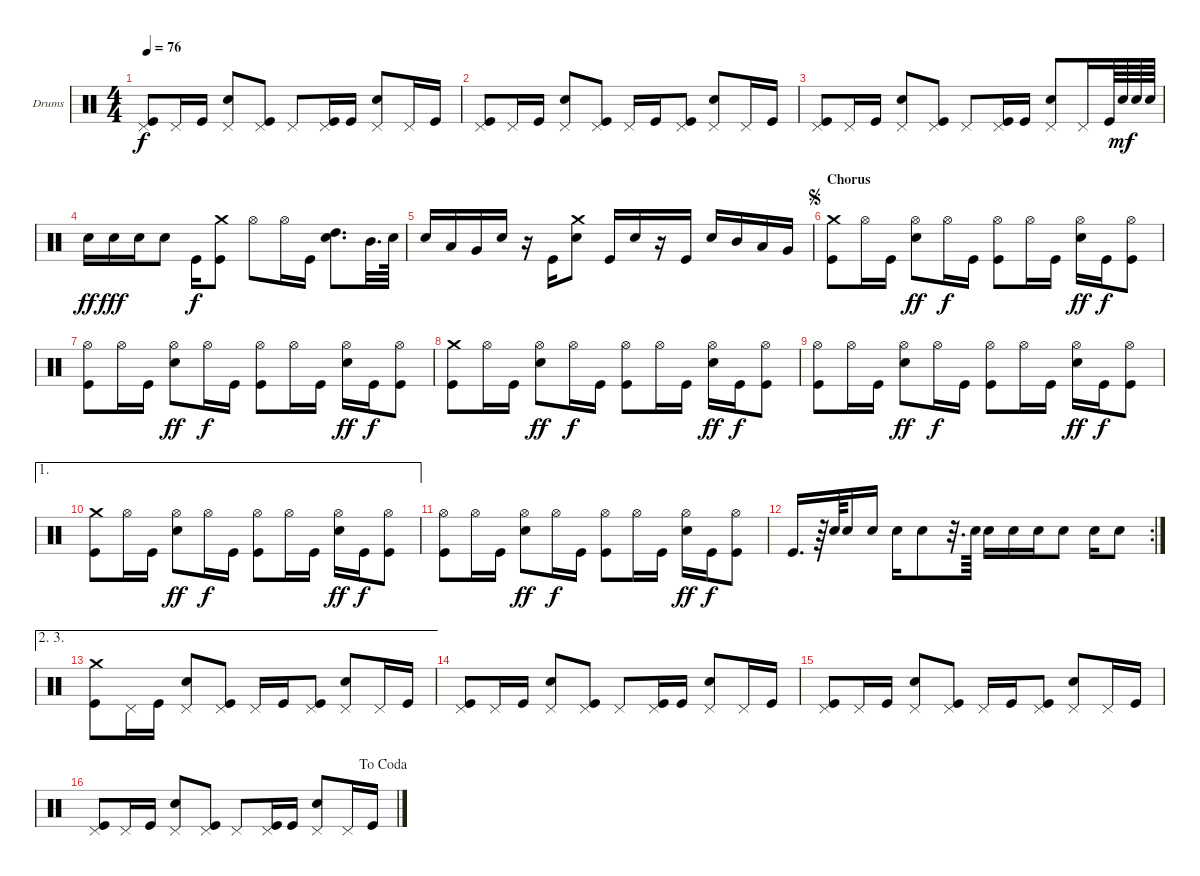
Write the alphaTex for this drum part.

\bracketExtendMode groupsimilarinstruments
\firstSystemTrackNameOrientation horizontal
\otherSystemsTrackNameOrientation horizontal
\track ("Drumkit" "Drums") {instrument percussion}
\staff {score}
\articulation defaults
\ts (4 4)
\tempo 76
\clef neutral
\ks c
("Pedal Hi-Hat (hit)" "Kick (hit)").8{dy f} "Pedal Hi-Hat (hit)".16 "Kick (hit)".16 ("Pedal Hi-Hat (hit)" "Snare (hit) 2").8 ("Pedal Hi-Hat (hit)" "Kick (hit)").8 "Pedal Hi-Hat (hit)".8 ("Pedal Hi-Hat (hit)" "Kick (hit)").16 "Kick (hit)".16 ("Pedal Hi-Hat (hit)" "Snare (hit) 2").8 "Pedal Hi-Hat (hit)".16 "Kick (hit)".16 |
("Pedal Hi-Hat (hit)" "Kick (hit)").8 "Pedal Hi-Hat (hit)".16 "Kick (hit)".16 ("Pedal Hi-Hat (hit)" "Snare (hit) 2").8 ("Pedal Hi-Hat (hit)" "Kick (hit)").8 "Pedal Hi-Hat (hit)".16 "Kick (hit)".16 ("Pedal Hi-Hat (hit)" "Kick (hit)").8 ("Pedal Hi-Hat (hit)" "Snare (hit) 2").8 "Pedal Hi-Hat (hit)".16 "Kick (hit)".16 |
("Pedal Hi-Hat (hit)" "Kick (hit)").8 "Pedal Hi-Hat (hit)".16 "Kick (hit)".16 ("Pedal Hi-Hat (hit)" "Snare (hit) 2").8 ("Pedal Hi-Hat (hit)" "Kick (hit)").8 "Pedal Hi-Hat (hit)".8 ("Pedal Hi-Hat (hit)" "Kick (hit)").16 "Kick (hit)".16 ("Pedal Hi-Hat (hit)" "Snare (hit) 2").8 "Pedal Hi-Hat (hit)".16 "Kick (hit)".64 "Snare (hit) 2".64{dy mf} "Snare (hit) 2".64 "Snare (hit) 2".64 |
"Snare (hit) 2".16{dy ff} "Snare (hit) 2".16{dy fff} "Snare (hit) 2".16 "Snare (hit) 2".8 "Kick (hit)".16{dy f} ("Kick (hit)" "Crash medium (hit)").8 "Hi-Hat (open)".8 "Hi-Hat (open)".16 "Kick (hit)".16 ("High Tom (hit)" "Snare (hit) 2").8{d} "Mid Tom (hit)".32{d} "Snare (hit) 2".64 |
"Snare (hit) 2".16 "Low Tom (hit)".16 "Very Low Tom (hit)".16 "Snare (hit) 2".16 r.16 "Kick (hit)".16 ("Crash medium (hit)" "Snare (hit) 2").8 "Kick (hit)".16 "Snare (hit) 2".16 r.16 "Kick (hit)".16 "Snare (hit) 2".16 "Mid Tom (hit)".16 "Low Tom (hit)".16 "Very Low Tom (hit)".16 |
\section ("" "Chorus")
\jump segno
("Crash medium (hit)" "Kick (hit)").8 "Hi-Hat (open)".16 "Kick (hit)".16 ("Snare (hit) 2" "Hi-Hat (open)").8{dy ff} "Hi-Hat (open)".16{dy f} "Kick (hit)".16 ("Kick (hit)" "Hi-Hat (open)").8 "Hi-Hat (open)".16 "Kick (hit)".16 ("Snare (hit) 2" "Hi-Hat (open)").16{dy ff} "Kick (hit)".16{dy f} ("Kick (hit)" "Hi-Hat (open)").8 |
("Hi-Hat (open)" "Kick (hit)").8 "Hi-Hat (open)".16 "Kick (hit)".16 ("Snare (hit) 2" "Hi-Hat (open)").8{dy ff} "Hi-Hat (open)".16{dy f} "Kick (hit)".16 ("Kick (hit)" "Hi-Hat (open)").8 "Hi-Hat (open)".16 "Kick (hit)".16 ("Snare (hit) 2" "Hi-Hat (open)").16{dy ff} "Kick (hit)".16{dy f} ("Kick (hit)" "Hi-Hat (open)").8 |
("Crash medium (hit)" "Kick (hit)").8 "Hi-Hat (open)".16 "Kick (hit)".16 ("Snare (hit) 2" "Hi-Hat (open)").8{dy ff} "Hi-Hat (open)".16{dy f} "Kick (hit)".16 ("Kick (hit)" "Hi-Hat (open)").8 "Hi-Hat (open)".16 "Kick (hit)".16 ("Snare (hit) 2" "Hi-Hat (open)").16{dy ff} "Kick (hit)".16{dy f} ("Kick (hit)" "Hi-Hat (open)").8 |
("Hi-Hat (open)" "Kick (hit)").8 "Hi-Hat (open)".16 "Kick (hit)".16 ("Snare (hit) 2" "Hi-Hat (open)").8{dy ff} "Hi-Hat (open)".16{dy f} "Kick (hit)".16 ("Kick (hit)" "Hi-Hat (open)").8 "Hi-Hat (open)".16 "Kick (hit)".16 ("Snare (hit) 2" "Hi-Hat (open)").16{dy ff} "Kick (hit)".16{dy f} ("Kick (hit)" "Hi-Hat (open)").8 |
\ae 1
("Crash medium (hit)" "Kick (hit)").8 "Hi-Hat (open)".16 "Kick (hit)".16 ("Snare (hit) 2" "Hi-Hat (open)").8{dy ff} "Hi-Hat (open)".16{dy f} "Kick (hit)".16 ("Kick (hit)" "Hi-Hat (open)").8 "Hi-Hat (open)".16 "Kick (hit)".16 ("Snare (hit) 2" "Hi-Hat (open)").16{dy ff} "Kick (hit)".16{dy f} ("Kick (hit)" "Hi-Hat (open)").8 |
("Hi-Hat (open)" "Kick (hit)").8 "Hi-Hat (open)".16 "Kick (hit)".16 ("Snare (hit) 2" "Hi-Hat (open)").8{dy ff} "Hi-Hat (open)".16{dy f} "Kick (hit)".16 ("Kick (hit)" "Hi-Hat (open)").8 "Hi-Hat (open)".16 "Kick (hit)".16 ("Snare (hit) 2" "Hi-Hat (open)").16{dy ff} "Kick (hit)".16{dy f} ("Kick (hit)" "Hi-Hat (open)").8 |
\rc 2 "Kick (hit)".16{d}
r.64 "Snare (hit) 2".64 "Snare (hit) 2".16 "Snare (hit) 2".16 "Snare (hit) 2".16 "Snare (hit) 2".8 r.32{d} "Snare (hit) 2".64 "Snare (hit) 2".16 "Snare (hit) 2".16 "Snare (hit) 2".16 "Snare (hit) 2".8 "Snare (hit) 2".16 "Snare (hit) 2".8 |
\ae (2 3)
("Crash medium (hit)" "Kick (hit)").8 "Pedal Hi-Hat (hit)".16 "Kick (hit)".16 ("Pedal Hi-Hat (hit)" "Snare (hit) 2").8 ("Pedal Hi-Hat (hit)" "Kick (hit)").8 "Pedal Hi-Hat (hit)".16 "Kick (hit)".16 ("Pedal Hi-Hat (hit)" "Kick (hit)").8 ("Pedal Hi-Hat (hit)" "Snare (hit) 2").8 "Pedal Hi-Hat (hit)".16 "Kick (hit)".16 |
("Pedal Hi-Hat (hit)" "Kick (hit)").8 "Pedal Hi-Hat (hit)".16 "Kick (hit)".16 ("Pedal Hi-Hat (hit)" "Snare (hit) 2").8 ("Pedal Hi-Hat (hit)" "Kick (hit)").8 "Pedal Hi-Hat (hit)".8 ("Pedal Hi-Hat (hit)" "Kick (hit)").16 "Kick (hit)".16 ("Pedal Hi-Hat (hit)" "Snare (hit) 2").8 "Pedal Hi-Hat (hit)".16 "Kick (hit)".16 |
("Pedal Hi-Hat (hit)" "Kick (hit)").8 "Pedal Hi-Hat (hit)".16 "Kick (hit)".16 ("Pedal Hi-Hat (hit)" "Snare (hit) 2").8 ("Pedal Hi-Hat (hit)" "Kick (hit)").8 "Pedal Hi-Hat (hit)".16 "Kick (hit)".16 ("Pedal Hi-Hat (hit)" "Kick (hit)").8 ("Pedal Hi-Hat (hit)" "Snare (hit) 2").8 "Pedal Hi-Hat (hit)".16 "Kick (hit)".16 |
\jump dacoda
("Pedal Hi-Hat (hit)" "Kick (hit)").8 "Pedal Hi-Hat (hit)".16 "Kick (hit)".16 ("Pedal Hi-Hat (hit)" "Snare (hit) 2").8 ("Pedal Hi-Hat (hit)" "Kick (hit)").8 "Pedal Hi-Hat (hit)".8 ("Pedal Hi-Hat (hit)" "Kick (hit)").16 "Kick (hit)".16 ("Pedal Hi-Hat (hit)" "Snare (hit) 2").8 "Pedal Hi-Hat (hit)".16 "Kick (hit)".16
